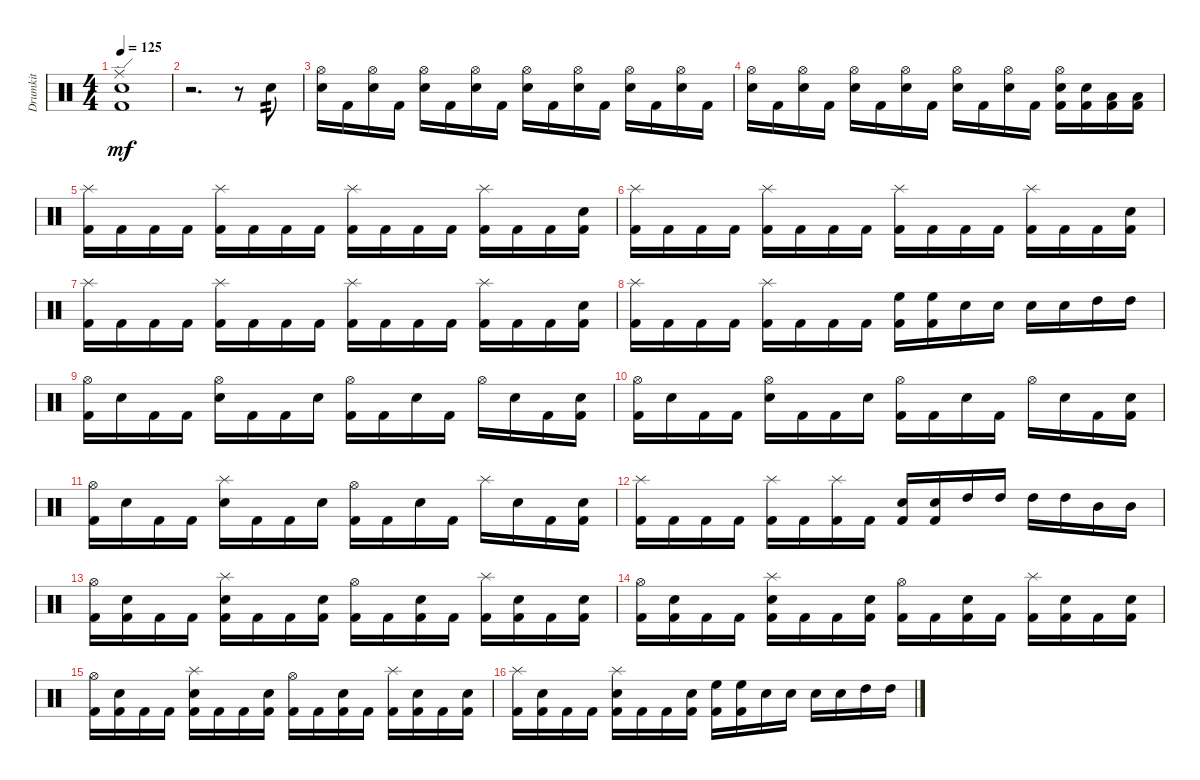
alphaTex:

\track ("Drumkit" "Drumkit") {instrument percussion}
\staff {score}
\articulation defaults
\ts (4 4)
\tempo 125
\clef neutral
\ks c
("Ride (edge)" "Kick (hit) 2" "Snare (hit) 2").1{dy mf} |
r.2{d} r.8 "Snare (hit) 2".8{tp 2} |
("Snare (hit) 2" "Hi-Hat (open)").16 "Kick (hit) 2".16 ("Snare (hit) 2" "Hi-Hat (open)").16 "Kick (hit) 2".16 ("Snare (hit) 2" "Hi-Hat (open)").16 "Kick (hit) 2".16 ("Snare (hit) 2" "Hi-Hat (open)").16 "Kick (hit) 2".16 ("Snare (hit) 2" "Hi-Hat (open)").16 "Kick (hit) 2".16 ("Snare (hit) 2" "Hi-Hat (open)").16 "Kick (hit) 2".16 ("Snare (hit) 2" "Hi-Hat (open)").16 "Kick (hit) 2".16 ("Snare (hit) 2" "Hi-Hat (open)").16 "Kick (hit) 2".16 |
("Snare (hit) 2" "Hi-Hat (open)").16 "Kick (hit) 2".16 ("Snare (hit) 2" "Hi-Hat (open)").16 "Kick (hit) 2".16 ("Snare (hit) 2" "Hi-Hat (open)").16 "Kick (hit) 2".16 ("Snare (hit) 2" "Hi-Hat (open)").16 "Kick (hit) 2".16 ("Snare (hit) 2" "Hi-Hat (open)").16 "Kick (hit) 2".16 ("Snare (hit) 2" "Hi-Hat (open)").16 "Kick (hit) 2".16 ("Snare (hit) 2" "Hi-Hat (open)" "Kick (hit) 2").16 ("Kick (hit) 2" "Snare (hit) 2").16 ("Low Tom (hit)" "Kick (hit) 2").16 ("Low Tom (hit)" "Kick (hit) 2").16 |
("Kick (hit) 2" "Splash (hit)").16 "Kick (hit) 2".16 "Kick (hit) 2".16 "Kick (hit) 2".16 ("Kick (hit) 2" "Splash (hit)").16 "Kick (hit) 2".16 "Kick (hit) 2".16 "Kick (hit) 2".16 ("Kick (hit) 2" "Splash (hit)").16 "Kick (hit) 2".16 "Kick (hit) 2".16 "Kick (hit) 2".16 ("Kick (hit) 2" "Splash (hit)").16 "Kick (hit) 2".16 "Kick (hit) 2".16 ("Kick (hit) 2" "Snare (hit) 2").16 |
("Kick (hit) 2" "Splash (hit)").16 "Kick (hit) 2".16 "Kick (hit) 2".16 "Kick (hit) 2".16 ("Kick (hit) 2" "Splash (hit)").16 "Kick (hit) 2".16 "Kick (hit) 2".16 "Kick (hit) 2".16 ("Kick (hit) 2" "Splash (hit)").16 "Kick (hit) 2".16 "Kick (hit) 2".16 "Kick (hit) 2".16 ("Kick (hit) 2" "Splash (hit)").16 "Kick (hit) 2".16 "Kick (hit) 2".16 ("Kick (hit) 2" "Snare (hit) 2").16 |
("Kick (hit) 2" "Splash (hit)").16 "Kick (hit) 2".16 "Kick (hit) 2".16 "Kick (hit) 2".16 ("Kick (hit) 2" "Splash (hit)").16 "Kick (hit) 2".16 "Kick (hit) 2".16 "Kick (hit) 2".16 ("Kick (hit) 2" "Splash (hit)").16 "Kick (hit) 2".16 "Kick (hit) 2".16 "Kick (hit) 2".16 ("Kick (hit) 2" "Splash (hit)").16 "Kick (hit) 2".16 "Kick (hit) 2".16 ("Kick (hit) 2" "Snare (hit) 2").16 |
("Kick (hit) 2" "Splash (hit)").16 "Kick (hit) 2".16 "Kick (hit) 2".16 "Kick (hit) 2".16 ("Kick (hit) 2" "Splash (hit)").16 "Kick (hit) 2".16 "Kick (hit) 2".16 "Kick (hit) 2".16 ("Kick (hit) 2" "High Floor Tom (hit)").16 ("High Floor Tom (hit)" "Kick (hit) 2").16 "Snare (hit) 2".16 "Snare (hit) 2".16 "Snare (hit) 2".16 "Snare (hit) 2".16 "High Tom (hit)".16 "High Tom (hit)".16 |
("Kick (hit) 2" "Hi-Hat (open)").16 "Snare (hit) 2".16 "Kick (hit) 2".16 "Kick (hit) 2".16 ("Hi-Hat (open)" "Snare (hit) 2").16 "Kick (hit) 2".16 "Kick (hit) 2".16 "Snare (hit) 2".16 ("Kick (hit) 2" "Hi-Hat (open)").16 "Kick (hit) 2".16 "Snare (hit) 2".16 "Kick (hit) 2".16 "Hi-Hat (open)".16 "Snare (hit) 2".16 "Kick (hit) 2".16 ("Kick (hit) 2" "Snare (hit) 2").16 |
("Kick (hit) 2" "Hi-Hat (open)").16 "Snare (hit) 2".16 "Kick (hit) 2".16 "Kick (hit) 2".16 ("Hi-Hat (open)" "Snare (hit) 2").16 "Kick (hit) 2".16 "Kick (hit) 2".16 "Snare (hit) 2".16 ("Kick (hit) 2" "Hi-Hat (open)").16 "Kick (hit) 2".16 "Snare (hit) 2".16 "Kick (hit) 2".16 "Hi-Hat (open)".16 "Snare (hit) 2".16 "Kick (hit) 2".16 ("Kick (hit) 2" "Snare (hit) 2").16 |
("Kick (hit) 2" "Hi-Hat (open)").16 "Snare (hit) 2".16 "Kick (hit) 2".16 "Kick (hit) 2".16 ("Snare (hit) 2" "Splash (hit)").16 "Kick (hit) 2".16 "Kick (hit) 2".16 "Snare (hit) 2".16 ("Kick (hit) 2" "Hi-Hat (open)").16 "Kick (hit) 2".16 "Snare (hit) 2".16 "Kick (hit) 2".16 "Splash (hit)".16 "Snare (hit) 2".16 "Kick (hit) 2".16 ("Kick (hit) 2" "Snare (hit) 2").16 |
("Kick (hit) 2" "Splash (hit)").16 "Kick (hit) 2".16 "Kick (hit) 2".16 "Kick (hit) 2".16 ("Kick (hit) 2" "Splash (hit)").16 "Kick (hit) 2".16 ("Kick (hit) 2" "Splash (hit)").16 "Kick (hit) 2".16 ("Kick (hit) 2" "Snare (hit) 2").16 ("Kick (hit) 2" "Snare (hit) 2").16 "High Tom (hit)".16 "High Tom (hit)".16 "High Tom (hit)".16 "High Tom (hit)".16 "Mid Tom (hit)".16 "Mid Tom (hit)".16 |
("Kick (hit) 2" "Hi-Hat (open)").16 ("Kick (hit) 2" "Snare (hit) 2").16 "Kick (hit) 2".16 "Kick (hit) 2".16 ("Kick (hit) 2" "Snare (hit) 2" "Splash (hit)").16 "Kick (hit) 2".16 "Kick (hit) 2".16 ("Kick (hit) 2" "Snare (hit) 2").16 ("Kick (hit) 2" "Hi-Hat (open)").16 "Kick (hit) 2".16 ("Kick (hit) 2" "Snare (hit) 2").16 "Kick (hit) 2".16 ("Kick (hit) 2" "Splash (hit)").16 ("Kick (hit) 2" "Snare (hit) 2").16 "Kick (hit) 2".16 ("Kick (hit) 2" "Snare (hit) 2").16 |
("Kick (hit) 2" "Hi-Hat (open)").16 ("Kick (hit) 2" "Snare (hit) 2").16 "Kick (hit) 2".16 "Kick (hit) 2".16 ("Kick (hit) 2" "Snare (hit) 2" "Splash (hit)").16 "Kick (hit) 2".16 "Kick (hit) 2".16 ("Kick (hit) 2" "Snare (hit) 2").16 ("Kick (hit) 2" "Hi-Hat (open)").16 "Kick (hit) 2".16 ("Kick (hit) 2" "Snare (hit) 2").16 "Kick (hit) 2".16 ("Kick (hit) 2" "Splash (hit)").16 ("Kick (hit) 2" "Snare (hit) 2").16 "Kick (hit) 2".16 ("Kick (hit) 2" "Snare (hit) 2").16 |
("Kick (hit) 2" "Hi-Hat (open)").16 ("Kick (hit) 2" "Snare (hit) 2").16 "Kick (hit) 2".16 "Kick (hit) 2".16 ("Kick (hit) 2" "Snare (hit) 2" "Splash (hit)").16 "Kick (hit) 2".16 "Kick (hit) 2".16 ("Kick (hit) 2" "Snare (hit) 2").16 ("Kick (hit) 2" "Hi-Hat (open)").16 "Kick (hit) 2".16 ("Kick (hit) 2" "Snare (hit) 2").16 "Kick (hit) 2".16 ("Kick (hit) 2" "Splash (hit)").16 ("Kick (hit) 2" "Snare (hit) 2").16 "Kick (hit) 2".16 ("Kick (hit) 2" "Snare (hit) 2").16 |
("Kick (hit) 2" "Splash (hit)").16 ("Kick (hit) 2" "Snare (hit) 2").16 "Kick (hit) 2".16 "Kick (hit) 2".16 ("Kick (hit) 2" "Snare (hit) 2" "Splash (hit)").16 "Kick (hit) 2".16 "Kick (hit) 2".16 ("Kick (hit) 2" "Snare (hit) 2").16 ("Kick (hit) 2" "High Floor Tom (hit)").16 ("Kick (hit) 2" "High Floor Tom (hit)").16 "Snare (hit) 2".16 "Snare (hit) 2".16 "Snare (hit) 2".16 "Snare (hit) 2".16 "High Tom (hit)".16 "High Tom (hit)".16
